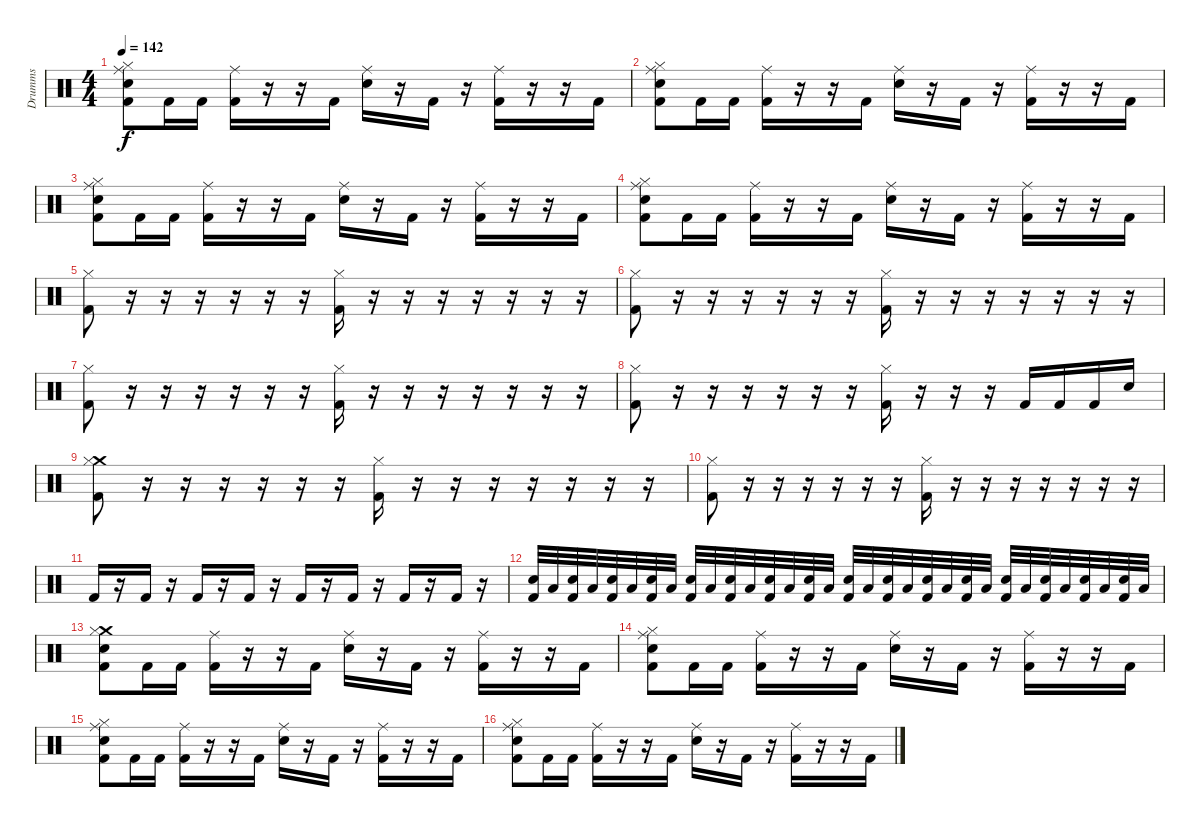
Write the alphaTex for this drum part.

\track ("Drumms" "Drumms") {instrument percussion}
\staff {score}
\articulation defaults
\ts (4 4)
\tempo 142
\clef neutral
\ks c
("Ride (middle)" "Hi-Hat (closed)" "Kick (hit) 2" "Snare (hit) 2").8{dy f} "Kick (hit) 2".16 "Kick (hit) 2".16 ("Ride (middle)" "Kick (hit) 2").16 r.16 r.16 "Kick (hit) 2".16 ("Ride (middle)" "Snare (hit) 2").16 r.16 "Kick (hit) 2".16 r.16 ("Ride (middle)" "Kick (hit) 2").16 r.16 r.16 "Kick (hit) 2".16 |
("Ride (middle)" "Hi-Hat (closed)" "Kick (hit) 2" "Snare (hit) 2").8 "Kick (hit) 2".16 "Kick (hit) 2".16 ("Ride (middle)" "Kick (hit) 2").16 r.16 r.16 "Kick (hit) 2".16 ("Ride (middle)" "Snare (hit) 2").16 r.16 "Kick (hit) 2".16 r.16 ("Ride (middle)" "Kick (hit) 2").16 r.16 r.16 "Kick (hit) 2".16 |
("Ride (middle)" "Hi-Hat (closed)" "Kick (hit) 2" "Snare (hit) 2").8 "Kick (hit) 2".16 "Kick (hit) 2".16 ("Ride (middle)" "Kick (hit) 2").16 r.16 r.16 "Kick (hit) 2".16 ("Ride (middle)" "Snare (hit) 2").16 r.16 "Kick (hit) 2".16 r.16 ("Ride (middle)" "Kick (hit) 2").16 r.16 r.16 "Kick (hit) 2".16 |
("Ride (middle)" "Hi-Hat (closed)" "Kick (hit) 2" "Snare (hit) 2").8 "Kick (hit) 2".16 "Kick (hit) 2".16 ("Ride (middle)" "Kick (hit) 2").16 r.16 r.16 "Kick (hit) 2".16 ("Ride (middle)" "Snare (hit) 2").16 r.16 "Kick (hit) 2".16 r.16 ("Ride (middle)" "Kick (hit) 2").16 r.16 r.16 "Kick (hit) 2".16 |
("Hi-Hat (closed)" "Kick (hit) 2").8 r.16 r.16 r.16 r.16 r.16 r.16 ("Hi-Hat (closed)" "Kick (hit) 2").16 r.16 r.16 r.16 r.16 r.16 r.16 r.16 |
("Hi-Hat (closed)" "Kick (hit) 2").8 r.16 r.16 r.16 r.16 r.16 r.16 ("Hi-Hat (closed)" "Kick (hit) 2").16 r.16 r.16 r.16 r.16 r.16 r.16 r.16 |
("Hi-Hat (closed)" "Kick (hit) 2").8 r.16 r.16 r.16 r.16 r.16 r.16 ("Hi-Hat (closed)" "Kick (hit) 2").16 r.16 r.16 r.16 r.16 r.16 r.16 r.16 |
("Hi-Hat (closed)" "Kick (hit) 2").8 r.16 r.16 r.16 r.16 r.16 r.16 ("Hi-Hat (closed)" "Kick (hit) 2").16 r.16 r.16 r.16 "Kick (hit) 2".16 "Kick (hit) 2".16 "Kick (hit) 2".16 "Snare (hit) 2".16 |
("Crash medium (hit)" "Hi-Hat (closed)" "Kick (hit) 2").8 r.16 r.16 r.16 r.16 r.16 r.16 ("Hi-Hat (closed)" "Kick (hit) 2").16 r.16 r.16 r.16 r.16 r.16 r.16 r.16 |
("Hi-Hat (closed)" "Kick (hit) 2").8 r.16 r.16 r.16 r.16 r.16 r.16 ("Hi-Hat (closed)" "Kick (hit) 2").16 r.16 r.16 r.16 r.16 r.16 r.16 r.16 |
"Kick (hit) 2".16 r.16 "Kick (hit) 2".16 r.16 "Kick (hit) 2".16 r.16 "Kick (hit) 2".16 r.16 "Kick (hit) 2".16 r.16 "Kick (hit) 2".16 r.16 "Kick (hit) 2".16 r.16 "Kick (hit) 2".16 r.16 |
("Snare (hit) 2" "Kick (hit) 2").32 "Low Floor Tom (hit)".32 ("Electric Snare (hit)" "Kick (hit) 2").32 "Low Floor Tom (hit)".32 ("Snare (hit) 2" "Kick (hit) 2").32 "Low Floor Tom (hit)".32 ("Electric Snare (hit)" "Kick (hit) 2").32 "Low Floor Tom (hit)".32 ("Snare (hit) 2" "Kick (hit) 2").32 "Low Floor Tom (hit)".32 ("Electric Snare (hit)" "Kick (hit) 2").32 "Low Floor Tom (hit)".32 ("Snare (hit) 2" "Kick (hit) 2").32 "Low Floor Tom (hit)".32 ("Electric Snare (hit)" "Kick (hit) 2").32 "Low Floor Tom (hit)".32 ("Electric Snare (hit)" "Kick (hit) 2").32 "Low Floor Tom (hit)".32 ("Electric Snare (hit)" "Kick (hit) 2").32 "Low Floor Tom (hit)".32 ("Electric Snare (hit)" "Kick (hit) 2").32 "Low Floor Tom (hit)".32 ("Electric Snare (hit)" "Kick (hit) 2").32 "Low Floor Tom (hit)".32 ("Electric Snare (hit)" "Kick (hit) 2").32 "Low Floor Tom (hit)".32 ("Electric Snare (hit)" "Kick (hit) 2").32 "Low Floor Tom (hit)".32 ("Electric Snare (hit)" "Kick (hit) 2").32 "Low Floor Tom (hit)".32 ("Electric Snare (hit)" "Kick (hit) 2").32 "Low Floor Tom (hit)".32 |
("Crash medium (hit)" "Hi-Hat (closed)" "Kick (hit) 2" "Snare (hit) 2").8 "Kick (hit) 2".16 "Kick (hit) 2".16 ("Ride (middle)" "Kick (hit) 2").16 r.16 r.16 "Kick (hit) 2".16 ("Ride (middle)" "Snare (hit) 2").16 r.16 "Kick (hit) 2".16 r.16 ("Ride (middle)" "Kick (hit) 2").16 r.16 r.16 "Kick (hit) 2".16 |
("Ride (middle)" "Hi-Hat (closed)" "Kick (hit) 2" "Snare (hit) 2").8 "Kick (hit) 2".16 "Kick (hit) 2".16 ("Ride (middle)" "Kick (hit) 2").16 r.16 r.16 "Kick (hit) 2".16 ("Ride (middle)" "Snare (hit) 2").16 r.16 "Kick (hit) 2".16 r.16 ("Ride (middle)" "Kick (hit) 2").16 r.16 r.16 "Kick (hit) 2".16 |
("Ride (middle)" "Hi-Hat (closed)" "Kick (hit) 2" "Snare (hit) 2").8 "Kick (hit) 2".16 "Kick (hit) 2".16 ("Ride (middle)" "Kick (hit) 2").16 r.16 r.16 "Kick (hit) 2".16 ("Ride (middle)" "Snare (hit) 2").16 r.16 "Kick (hit) 2".16 r.16 ("Ride (middle)" "Kick (hit) 2").16 r.16 r.16 "Kick (hit) 2".16 |
("Ride (middle)" "Hi-Hat (closed)" "Kick (hit) 2" "Snare (hit) 2").8 "Kick (hit) 2".16 "Kick (hit) 2".16 ("Ride (middle)" "Kick (hit) 2").16 r.16 r.16 "Kick (hit) 2".16 ("Ride (middle)" "Snare (hit) 2").16 r.16 "Kick (hit) 2".16 r.16 ("Ride (middle)" "Kick (hit) 2").16 r.16 r.16 "Kick (hit) 2".16
